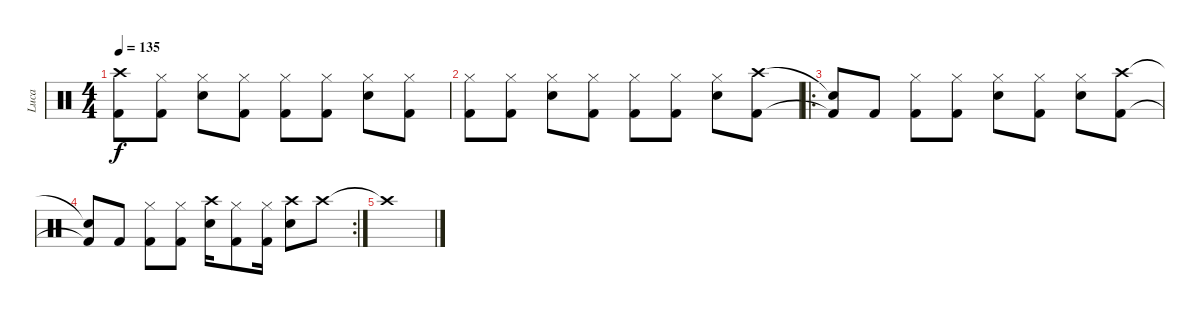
\track ("Luca" "Luca") {instrument percussion}
\staff {score}
\articulation defaults
\ts (4 4)
\tempo 135
\clef neutral
\ks c
("Crash high (hit)" "Kick (hit) 2").8{dy f} ("Hi-Hat (closed)" "Kick (hit) 2").8 ("Hi-Hat (closed)" "Snare (hit) 2").8 ("Hi-Hat (closed)" "Kick (hit) 2").8 ("Hi-Hat (closed)" "Kick (hit) 2").8 ("Hi-Hat (closed)" "Kick (hit) 2").8 ("Hi-Hat (closed)" "Snare (hit) 2").8 ("Hi-Hat (closed)" "Kick (hit) 2").8 |
("Hi-Hat (closed)" "Kick (hit) 2").8 ("Hi-Hat (closed)" "Kick (hit) 2").8 ("Hi-Hat (closed)" "Snare (hit) 2").8 ("Hi-Hat (closed)" "Kick (hit) 2").8 ("Hi-Hat (closed)" "Kick (hit) 2").8 ("Hi-Hat (closed)" "Kick (hit) 2").8 ("Hi-Hat (closed)" "Snare (hit) 2").8 ("Crash high (hit)" "Kick (hit) 2").8 |
\ro
("Snare (hit)"{t} "Kick (hit) 2"{t}).8 "Kick (hit) 2".8 ("Hi-Hat (closed)" "Kick (hit) 2").8 ("Hi-Hat (closed)" "Kick (hit) 2").8 ("Hi-Hat (closed)" "Snare (hit) 2").8 ("Hi-Hat (closed)" "Kick (hit) 2").8 ("Hi-Hat (closed)" "Snare (hit) 2").8 ("Crash high (hit)" "Kick (hit) 2").8 |
\rc 2
("Snare (hit)"{t} "Kick (hit) 2"{t}).8 "Kick (hit) 2".8 ("Hi-Hat (closed)" "Kick (hit) 2").8 ("Hi-Hat (closed)" "Kick (hit) 2").8 ("Crash high (hit)" "Snare (hit) 2").16 ("Hi-Hat (closed)" "Kick (hit) 2").8 ("Hi-Hat (closed)" "Kick (hit) 2").16 ("Crash high (hit)" "Snare (hit) 2").8 "Crash high (hit)".8 |
"Crash high (hit)"{t}.1
